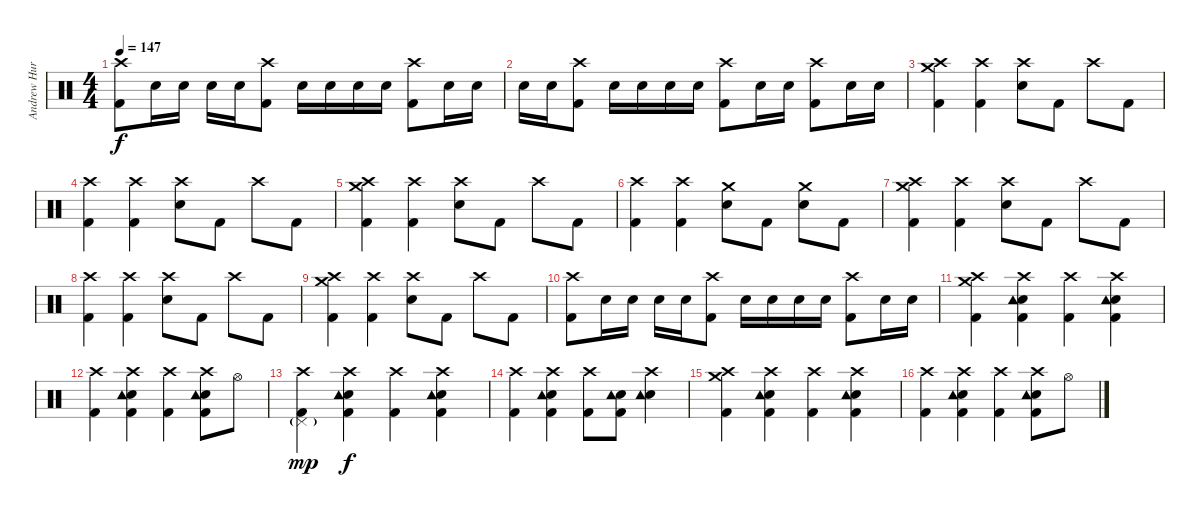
\track ("Andrew Hurley (Drums)" "Andrew Hur") {instrument percussion}
\staff {score}
\articulation defaults
\ts (4 4)
\tempo 147
\clef neutral
\ks c
("Crash high (hit)" "Kick (hit) 2").8{dy f} "Snare (hit) 2".16 "Snare (hit) 2".16 "Snare (hit) 2".16 "Snare (hit) 2".16 ("Crash high (hit)" "Kick (hit) 2").8 "Snare (hit) 2".16 "Snare (hit) 2".16 "Snare (hit) 2".16 "Snare (hit) 2".16 ("Crash high (hit)" "Kick (hit) 2").8 "Snare (hit) 2".16 "Snare (hit) 2".16 |
"Snare (hit) 2".16 "Snare (hit) 2".16 ("Crash high (hit)" "Kick (hit) 2").8 "Snare (hit) 2".16 "Snare (hit) 2".16 "Snare (hit) 2".16 "Snare (hit) 2".16 ("Crash high (hit)" "Kick (hit) 2").8 "Snare (hit) 2".16 "Snare (hit) 2".16 ("Crash high (hit)" "Kick (hit) 2").8 "Snare (hit) 2".16 "Snare (hit) 2".16 |
("Crash high (hit)" "Crash medium (hit)" "Kick (hit) 2").4 ("Crash high (hit)" "Kick (hit) 2").4 ("Crash high (hit)" "Snare (hit) 2").8 "Kick (hit) 2".8 "Crash high (hit)".8 "Kick (hit) 2".8 |
("Crash high (hit)" "Kick (hit) 2").4 ("Crash high (hit)" "Kick (hit) 2").4 ("Crash high (hit)" "Snare (hit) 2").8 "Kick (hit) 2".8 "Crash high (hit)".8 "Kick (hit) 2".8 |
("Crash high (hit)" "Crash medium (hit)" "Kick (hit) 2").4 ("Crash high (hit)" "Kick (hit) 2").4 ("Crash high (hit)" "Snare (hit) 2").8 "Kick (hit) 2".8 "Crash high (hit)".8 "Kick (hit) 2".8 |
("Crash high (hit)" "Kick (hit) 2").4 ("Crash high (hit)" "Kick (hit) 2").4 ("Crash medium (hit)" "Snare (hit) 2").8 "Kick (hit) 2".8 ("Crash medium (hit)" "Snare (hit) 2").8 "Kick (hit) 2".8 |
("Crash high (hit)" "Crash medium (hit)" "Kick (hit) 2").4 ("Crash high (hit)" "Kick (hit) 2").4 ("Crash high (hit)" "Snare (hit) 2").8 "Kick (hit) 2".8 "Crash high (hit)".8 "Kick (hit) 2".8 |
("Crash high (hit)" "Kick (hit) 2").4 ("Crash high (hit)" "Kick (hit) 2").4 ("Crash high (hit)" "Snare (hit) 2").8 "Kick (hit) 2".8 "Crash high (hit)".8 "Kick (hit) 2".8 |
("Crash high (hit)" "Crash medium (hit)" "Kick (hit) 2").4 ("Crash high (hit)" "Kick (hit) 2").4 ("Crash high (hit)" "Snare (hit) 2").8 "Kick (hit) 2".8 "Crash high (hit)".8 "Kick (hit) 2".8 |
("Crash high (hit)" "Kick (hit) 2").8 "Snare (hit) 2".16 "Snare (hit) 2".16 "Snare (hit) 2".16 "Snare (hit) 2".16 ("Crash high (hit)" "Kick (hit) 2").8 "Snare (hit) 2".16 "Snare (hit) 2".16 "Snare (hit) 2".16 "Snare (hit) 2".16 ("Crash high (hit)" "Kick (hit) 2").8 "Snare (hit) 2".16 "Snare (hit) 2".16 |
("Crash high (hit)" "Crash medium (hit)" "Kick (hit) 2").4 ("Crash high (hit)" "Snare (hit) 2" "Kick (hit) 2" "Tambourine (hit)").4 ("Crash high (hit)" "Kick (hit) 2").4 ("Crash high (hit)" "Snare (hit) 2" "Kick (hit) 2" "Tambourine (hit)").4 |
("Crash high (hit)" "Kick (hit) 2").4 ("Crash high (hit)" "Snare (hit) 2" "Kick (hit) 2" "Tambourine (hit)").4 ("Crash high (hit)" "Kick (hit) 2").4 ("Crash high (hit)" "Snare (hit) 2" "Kick (hit) 2" "Tambourine (hit)").8 "Hi-Hat (open)".8 |
("Crash high (hit)" "Pedal Hi-Hat (hit)"{g} "Kick (hit) 2").4{dy mp} ("Crash high (hit)" "Snare (hit) 2" "Kick (hit) 2" "Tambourine (hit)").4{dy f} ("Crash high (hit)" "Kick (hit) 2").4 ("Crash high (hit)" "Snare (hit) 2" "Kick (hit) 2" "Tambourine (hit)").4 |
("Crash high (hit)" "Kick (hit) 2").4 ("Crash high (hit)" "Snare (hit) 2" "Kick (hit) 2" "Tambourine (hit)").4 ("Crash high (hit)" "Kick (hit) 2").8 ("Snare (hit) 2" "Kick (hit) 2" "Tambourine (hit)").8 ("Crash high (hit)" "Snare (hit) 2" "Tambourine (hit)").4 |
("Crash high (hit)" "Crash medium (hit)" "Kick (hit) 2").4 ("Crash high (hit)" "Snare (hit) 2" "Kick (hit) 2" "Tambourine (hit)").4 ("Crash high (hit)" "Kick (hit) 2").4 ("Crash high (hit)" "Snare (hit) 2" "Kick (hit) 2" "Tambourine (hit)").4 |
("Crash high (hit)" "Kick (hit) 2").4 ("Crash high (hit)" "Snare (hit) 2" "Kick (hit) 2" "Tambourine (hit)").4 ("Crash high (hit)" "Kick (hit) 2").4 ("Crash high (hit)" "Snare (hit) 2" "Kick (hit) 2" "Tambourine (hit)").8 "Hi-Hat (open)".8
